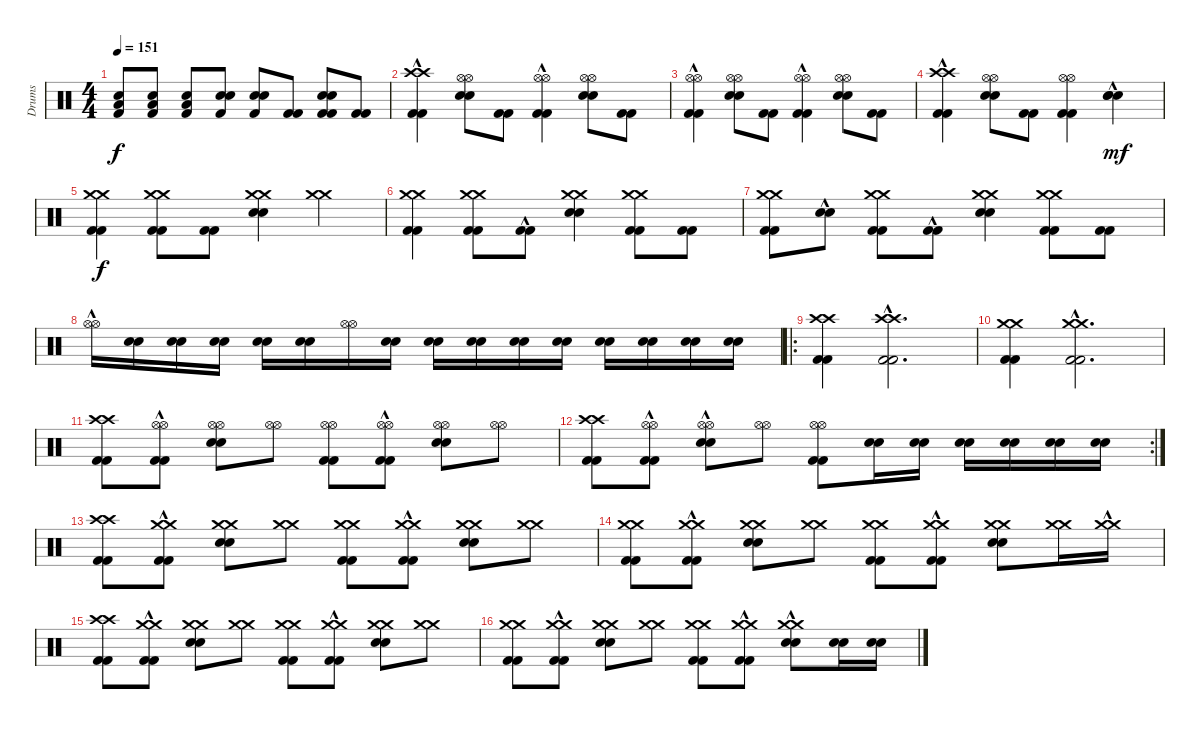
\track ("Drums" "Drums") {instrument percussion}
\staff {score}
\articulation defaults
\ts (4 4)
\tempo 151
\clef neutral
\ks c
("Kick (hit) 2" "Electric Snare (hit)" "Low Floor Tom (hit)").8{dy f} ("Kick (hit) 2" "Electric Snare (hit)" "Low Floor Tom (hit)").8 ("Kick (hit) 2" "Electric Snare (hit)" "Low Floor Tom (hit)").8 ("Kick (hit) 2" "Electric Snare (hit)" "Electric Snare (hit)").8 ("Kick (hit) 2" "Electric Snare (hit)" "Electric Snare (hit)").8 ("Kick (hit) 2" "Kick (hit) 2").8 ("Kick (hit) 2" "Electric Snare (hit)" "Electric Snare (hit)" "Kick (hit) 2").8 ("Kick (hit) 2" "Kick (hit) 2").8 |
("Kick (hit) 2"{hac} "Kick (hit) 2"{hac} "Crash high (hit)" "Crash high (hit)").4 ("Electric Snare (hit)" "Electric Snare (hit)" "Hi-Hat (open)" "Hi-Hat (open)").8 ("Kick (hit) 2" "Kick (hit) 2").8 ("Kick (hit) 2"{hac} "Kick (hit) 2"{hac} "Hi-Hat (open)" "Hi-Hat (open)").4 ("Electric Snare (hit)" "Electric Snare (hit)" "Hi-Hat (open)" "Hi-Hat (open)").8 ("Kick (hit) 2" "Kick (hit) 2").8 |
("Kick (hit) 2"{hac} "Kick (hit) 2"{hac} "Hi-Hat (open)" "Hi-Hat (open)").4 ("Electric Snare (hit)" "Electric Snare (hit)" "Hi-Hat (open)" "Hi-Hat (open)").8 ("Kick (hit) 2" "Kick (hit) 2").8 ("Kick (hit) 2"{hac} "Kick (hit) 2"{hac} "Hi-Hat (open)" "Hi-Hat (open)").4 ("Electric Snare (hit)" "Electric Snare (hit)" "Hi-Hat (open)" "Hi-Hat (open)").8 ("Kick (hit) 2" "Kick (hit) 2").8 |
("Kick (hit) 2"{hac} "Kick (hit) 2"{hac} "Crash high (hit)" "Crash high (hit)").4 ("Electric Snare (hit)" "Electric Snare (hit)" "Hi-Hat (open)" "Hi-Hat (open)").8 ("Kick (hit) 2" "Kick (hit) 2").8 ("Kick (hit) 2" "Kick (hit) 2" "Hi-Hat (open)" "Hi-Hat (open)").4 ("Electric Snare (hit)"{hac} "Electric Snare (hit)"{hac} "Electric Snare (hit)"{hac}).4{dy mf} |
("Kick (hit) 2" "Kick (hit) 2" "Crash medium (hit)" "Crash medium (hit)").4{dy f} ("Kick (hit) 2" "Kick (hit) 2" "Crash medium (hit)" "Crash medium (hit)").8 ("Kick (hit) 2" "Kick (hit) 2").8 ("Electric Snare (hit)" "Electric Snare (hit)" "Crash medium (hit)" "Crash medium (hit)").4 ("Crash medium (hit)" "Crash medium (hit)").4 |
("Kick (hit) 2" "Kick (hit) 2" "Crash medium (hit)" "Crash medium (hit)").4 ("Kick (hit) 2" "Kick (hit) 2" "Crash medium (hit)" "Crash medium (hit)").8 ("Kick (hit) 2"{hac} "Kick (hit) 2"{hac}).8 ("Electric Snare (hit)" "Electric Snare (hit)" "Crash medium (hit)" "Crash medium (hit)").4 ("Kick (hit) 2" "Kick (hit) 2" "Crash medium (hit)" "Crash medium (hit)").8 ("Kick (hit) 2" "Kick (hit) 2").8 |
("Kick (hit) 2" "Kick (hit) 2" "Crash medium (hit)" "Crash medium (hit)").8 ("Electric Snare (hit)"{hac} "Electric Snare (hit)"{hac}).8 ("Kick (hit) 2" "Kick (hit) 2" "Crash medium (hit)" "Crash medium (hit)").8 ("Kick (hit) 2"{hac} "Kick (hit) 2"{hac}).8 ("Electric Snare (hit)" "Electric Snare (hit)" "Crash medium (hit)" "Crash medium (hit)").4 ("Kick (hit) 2" "Kick (hit) 2" "Crash medium (hit)" "Crash medium (hit)").8 ("Kick (hit) 2" "Kick (hit) 2").8 |
("Hi-Hat (open)"{hac} "Hi-Hat (open)"{hac}).16 ("Electric Snare (hit)" "Electric Snare (hit)").16 ("Electric Snare (hit)" "Electric Snare (hit)").16 ("Electric Snare (hit)" "Electric Snare (hit)").16 ("Electric Snare (hit)" "Electric Snare (hit)").16 ("Electric Snare (hit)" "Electric Snare (hit)").16 ("Hi-Hat (open)" "Hi-Hat (open)").16 ("Electric Snare (hit)" "Electric Snare (hit)").16 ("Electric Snare (hit)" "Electric Snare (hit)").16 ("Electric Snare (hit)" "Electric Snare (hit)").16 ("Electric Snare (hit)" "Electric Snare (hit)").16 ("Electric Snare (hit)" "Electric Snare (hit)").16 ("Electric Snare (hit)" "Electric Snare (hit)").16 ("Electric Snare (hit)" "Electric Snare (hit)").16 ("Electric Snare (hit)" "Electric Snare (hit)").16 ("Electric Snare (hit)" "Electric Snare (hit)").16 |
\ro
("Kick (hit) 2" "Kick (hit) 2" "Crash high (hit)" "Crash high (hit)").4 ("Kick (hit) 2"{hac} "Kick (hit) 2"{hac} "Crash high (hit)" "Crash high (hit)").2{d} |
("Kick (hit) 2" "Kick (hit) 2" "Crash medium (hit)" "Crash medium (hit)").4 ("Kick (hit) 2"{hac} "Kick (hit) 2"{hac} "Crash medium (hit)" "Crash medium (hit)").2{d} |
("Kick (hit) 2" "Kick (hit) 2" "Crash high (hit)" "Crash high (hit)").8 ("Kick (hit) 2"{hac} "Kick (hit) 2"{hac} "Hi-Hat (open)" "Hi-Hat (open)").8 ("Electric Snare (hit)" "Electric Snare (hit)" "Hi-Hat (open)" "Hi-Hat (open)").8 ("Hi-Hat (open)" "Hi-Hat (open)").8 ("Kick (hit) 2" "Kick (hit) 2" "Hi-Hat (open)" "Hi-Hat (open)").8 ("Kick (hit) 2"{hac} "Kick (hit) 2"{hac} "Hi-Hat (open)" "Hi-Hat (open)").8 ("Electric Snare (hit)" "Electric Snare (hit)" "Hi-Hat (open)" "Hi-Hat (open)").8 ("Hi-Hat (open)" "Hi-Hat (open)").8 |
\rc 2
("Kick (hit) 2" "Kick (hit) 2" "Crash high (hit)" "Crash high (hit)").8 ("Kick (hit) 2"{hac} "Kick (hit) 2"{hac} "Hi-Hat (open)" "Hi-Hat (open)").8 ("Electric Snare (hit)"{hac} "Electric Snare (hit)"{hac} "Hi-Hat (open)" "Hi-Hat (open)").8 ("Hi-Hat (open)" "Hi-Hat (open)").8 ("Kick (hit) 2" "Kick (hit) 2" "Hi-Hat (open)" "Hi-Hat (open)").8 ("Electric Snare (hit)" "Electric Snare (hit)").16 ("Electric Snare (hit)" "Electric Snare (hit)").16 ("Electric Snare (hit)" "Electric Snare (hit)").16 ("Electric Snare (hit)" "Electric Snare (hit)").16 ("Electric Snare (hit)" "Electric Snare (hit)").16 ("Electric Snare (hit)" "Electric Snare (hit)").16 |
("Kick (hit) 2" "Kick (hit) 2" "Crash high (hit)" "Crash high (hit)").8 ("Kick (hit) 2"{hac} "Kick (hit) 2"{hac} "Crash medium (hit)" "Crash medium (hit)").8 ("Electric Snare (hit)" "Electric Snare (hit)" "Crash medium (hit)" "Crash medium (hit)").8 ("Crash medium (hit)" "Crash medium (hit)").8 ("Kick (hit) 2" "Kick (hit) 2" "Crash medium (hit)" "Crash medium (hit)").8 ("Kick (hit) 2"{hac} "Kick (hit) 2"{hac} "Crash medium (hit)" "Crash medium (hit)").8 ("Electric Snare (hit)" "Electric Snare (hit)" "Crash medium (hit)" "Crash medium (hit)").8 ("Crash medium (hit)" "Crash medium (hit)").8 |
("Kick (hit) 2" "Kick (hit) 2" "Crash medium (hit)" "Crash medium (hit)").8 ("Kick (hit) 2"{hac} "Kick (hit) 2"{hac} "Crash medium (hit)" "Crash medium (hit)").8 ("Electric Snare (hit)" "Electric Snare (hit)" "Crash medium (hit)" "Crash medium (hit)").8 ("Crash medium (hit)" "Crash medium (hit)").8 ("Kick (hit) 2" "Kick (hit) 2" "Crash medium (hit)" "Crash medium (hit)").8 ("Kick (hit) 2"{hac} "Kick (hit) 2"{hac} "Crash medium (hit)" "Crash medium (hit)").8 ("Electric Snare (hit)" "Electric Snare (hit)" "Crash medium (hit)" "Crash medium (hit)").8 ("Crash medium (hit)" "Crash medium (hit)").16 ("Crash medium (hit)"{hac} "Crash medium (hit)"{hac}).16 |
("Kick (hit) 2" "Kick (hit) 2" "Crash high (hit)" "Crash high (hit)").8 ("Kick (hit) 2"{hac} "Kick (hit) 2"{hac} "Crash medium (hit)" "Crash medium (hit)").8 ("Electric Snare (hit)" "Electric Snare (hit)" "Crash medium (hit)" "Crash medium (hit)").8 ("Crash medium (hit)" "Crash medium (hit)").8 ("Kick (hit) 2" "Kick (hit) 2" "Crash medium (hit)" "Crash medium (hit)").8 ("Kick (hit) 2"{hac} "Kick (hit) 2"{hac} "Crash medium (hit)" "Crash medium (hit)").8 ("Electric Snare (hit)" "Electric Snare (hit)" "Crash medium (hit)" "Crash medium (hit)").8 ("Crash medium (hit)" "Crash medium (hit)").8 |
("Kick (hit) 2" "Kick (hit) 2" "Crash medium (hit)" "Crash medium (hit)").8 ("Kick (hit) 2"{hac} "Kick (hit) 2"{hac} "Crash medium (hit)" "Crash medium (hit)").8 ("Electric Snare (hit)" "Electric Snare (hit)" "Crash medium (hit)" "Crash medium (hit)").8 ("Crash medium (hit)" "Crash medium (hit)").8 ("Kick (hit) 2" "Kick (hit) 2" "Crash medium (hit)" "Crash medium (hit)").8 ("Kick (hit) 2"{hac} "Kick (hit) 2"{hac} "Crash medium (hit)" "Crash medium (hit)").8 ("Electric Snare (hit)" "Electric Snare (hit)" "Crash medium (hit)"{hac} "Crash medium (hit)"{hac}).8 ("Electric Snare (hit)" "Electric Snare (hit)").16 ("Electric Snare (hit)" "Electric Snare (hit)").16
